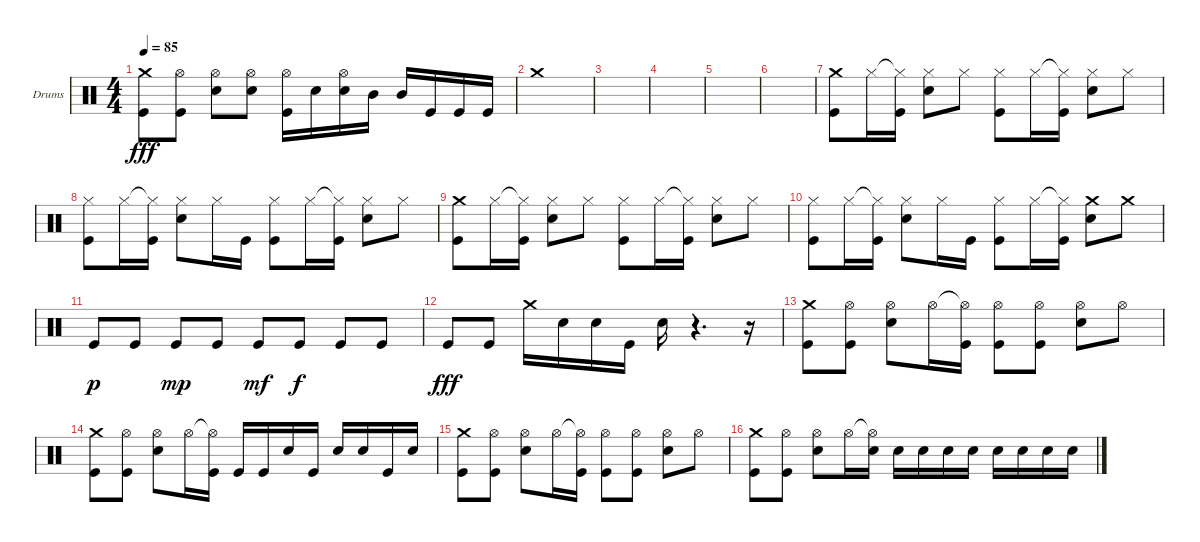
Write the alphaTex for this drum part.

\defaultSystemsLayout 4
\bracketExtendMode groupsimilarinstruments
\firstSystemTrackNameOrientation horizontal
\otherSystemsTrackNameOrientation horizontal
\track ("Drumkit" "Drums") {instrument percussion}
\staff {score}
\articulation defaults
\ts (4 4)
\tempo 85
\clef neutral
\ks c
("Crash medium (hit)" "Kick (hit)").8{dy fff} ("Hi-Hat (open)" "Kick (hit)").8 ("Hi-Hat (open)" "Snare (hit) 2").8 ("Hi-Hat (open)" "Snare (hit) 2").8 ("Hi-Hat (open)" "Kick (hit)").16 "Snare (hit) 2".16 ("Hi-Hat (open)" "Snare (hit) 2").16 "Mid Tom (hit)".16 "Mid Tom (hit)".16 "Kick (hit)".16 "Kick (hit)".16 "Kick (hit)".16 |
"Crash medium (hit)".1 |
|
|
|
|
("Crash medium (hit)" "Kick (hit)").8 "Hi-Hat (closed)".16 ("Hi-Hat (closed)"{t} "Kick (hit)").16 ("Hi-Hat (closed)" "Snare (hit) 2").8 "Hi-Hat (closed)".8 ("Hi-Hat (closed)" "Kick (hit)").8 "Hi-Hat (closed)".16 ("Hi-Hat (closed)"{t} "Kick (hit)").16 ("Hi-Hat (closed)" "Snare (hit) 2").8 "Hi-Hat (closed)".8 |
("Hi-Hat (closed)" "Kick (hit)").8 "Hi-Hat (closed)".16 ("Hi-Hat (closed)"{t} "Kick (hit)").16 ("Hi-Hat (closed)" "Snare (hit) 2").8 "Hi-Hat (closed)".16 "Kick (hit)".16 ("Hi-Hat (closed)" "Kick (hit)").8 "Hi-Hat (closed)".16 ("Hi-Hat (closed)"{t} "Kick (hit)").16 ("Hi-Hat (closed)" "Snare (hit) 2").8 "Hi-Hat (closed)".8 |
("Crash medium (hit)" "Kick (hit)").8 "Hi-Hat (closed)".16 ("Hi-Hat (closed)"{t} "Kick (hit)").16 ("Hi-Hat (closed)" "Snare (hit) 2").8 "Hi-Hat (closed)".8 ("Hi-Hat (closed)" "Kick (hit)").8 "Hi-Hat (closed)".16 ("Hi-Hat (closed)"{t} "Kick (hit)").16 ("Hi-Hat (closed)" "Snare (hit) 2").8 "Hi-Hat (closed)".8 |
("Hi-Hat (closed)" "Kick (hit)").8 "Hi-Hat (closed)".16 ("Hi-Hat (closed)"{t} "Kick (hit)").16 ("Hi-Hat (closed)" "Snare (hit) 2").8 "Hi-Hat (closed)".16 "Kick (hit)".16 ("Hi-Hat (closed)" "Kick (hit)").8 "Hi-Hat (closed)".16 ("Hi-Hat (closed)"{t} "Kick (hit)").16 ("Crash medium (hit)" "Snare (hit) 2").8 "Crash medium (hit)".8 |
"Kick (hit)".8{dy p} "Kick (hit)".8 "Kick (hit)".8{dy mp} "Kick (hit)".8 "Kick (hit)".8{dy mf} "Kick (hit)".8{dy f} "Kick (hit)".8 "Kick (hit)".8 |
"Kick (hit)".8{dy fff} "Kick (hit)".8 "Crash medium (hit)".16 "Snare (hit) 2".16 "Snare (hit) 2".16 "Kick (hit)".16 "Snare (hit) 2".16 r.4{d} r.16 |
("Crash medium (hit)" "Kick (hit)").8 ("Hi-Hat (open)" "Kick (hit)").8 ("Hi-Hat (open)" "Snare (hit) 2").8 "Hi-Hat (open)".16 ("Hi-Hat (open)"{t} "Kick (hit)").16 ("Hi-Hat (open)" "Kick (hit)").8 ("Hi-Hat (open)" "Kick (hit)").8 ("Hi-Hat (open)" "Snare (hit) 2").8 "Hi-Hat (open)".8 |
("Crash medium (hit)" "Kick (hit)").8 ("Hi-Hat (open)" "Kick (hit)").8 ("Hi-Hat (open)" "Snare (hit) 2").8 "Hi-Hat (open)".16 ("Hi-Hat (open)"{t} "Kick (hit)").16 "Kick (hit)".16 "Kick (hit)".16 "Snare (hit) 2".16 "Kick (hit)".16 "Snare (hit) 2".16 "Snare (hit) 2".16 "Kick (hit)".16 "Snare (hit) 2".16 |
("Crash medium (hit)" "Kick (hit)").8 ("Hi-Hat (open)" "Kick (hit)").8 ("Hi-Hat (open)" "Snare (hit) 2").8 "Hi-Hat (open)".16 ("Hi-Hat (open)"{t} "Kick (hit)").16 ("Hi-Hat (open)" "Kick (hit)").8 ("Hi-Hat (open)" "Kick (hit)").8 ("Hi-Hat (open)" "Snare (hit) 2").8 "Hi-Hat (open)".8 |
("Crash medium (hit)" "Kick (hit)").8 ("Hi-Hat (open)" "Kick (hit)").8 ("Hi-Hat (open)" "Snare (hit) 2").8 "Hi-Hat (open)".16 ("Hi-Hat (open)"{t} "Snare (hit) 2").16 "Snare (hit) 2".16 "Snare (hit) 2".16 "Snare (hit) 2".16 "Snare (hit) 2".16 "Snare (hit) 2".16 "Snare (hit) 2".16 "Snare (hit) 2".16 "Snare (hit) 2".16
